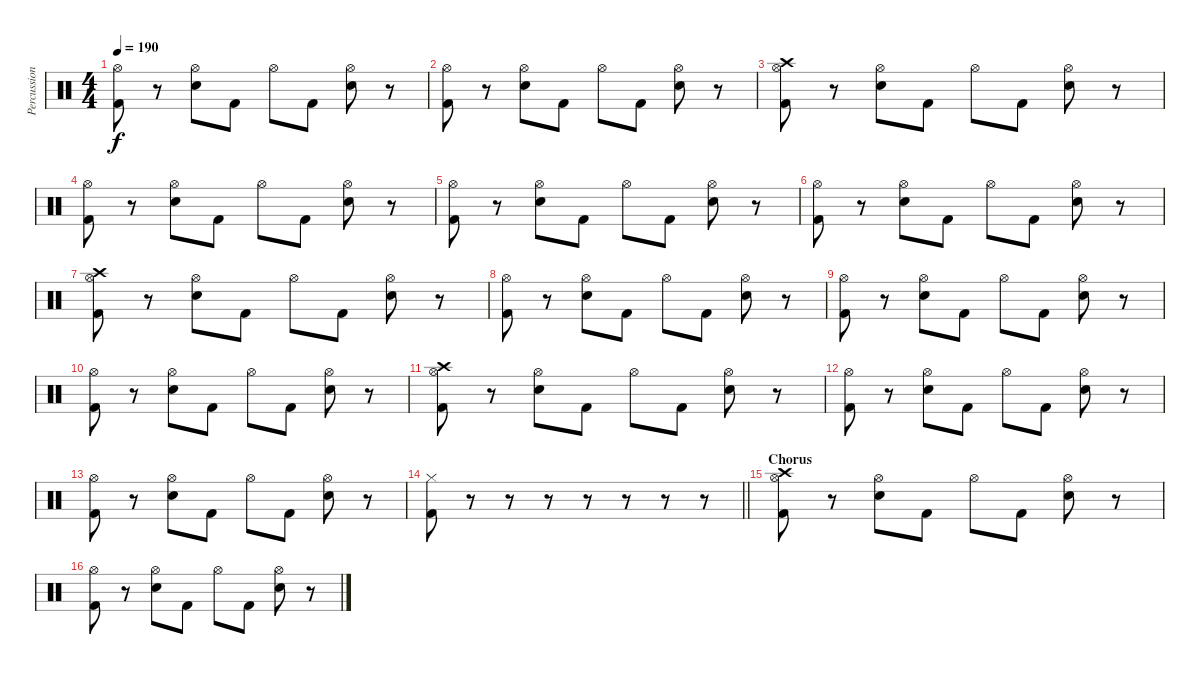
\track ("Percussion" "Percussion") {instrument percussion}
\staff {score}
\articulation defaults
\ts (4 4)
\tempo 190
\clef neutral
\ks c
("Hi-Hat (open)" "Kick (hit) 2").8{dy f} r.8 ("Hi-Hat (open)" "Snare (hit) 2").8 "Kick (hit) 2".8 "Hi-Hat (open)".8 "Kick (hit) 2".8 ("Hi-Hat (open)" "Snare (hit) 2").8 r.8 |
("Hi-Hat (open)" "Kick (hit) 2").8 r.8 ("Hi-Hat (open)" "Snare (hit) 2").8 "Kick (hit) 2".8 "Hi-Hat (open)".8 "Kick (hit) 2".8 ("Hi-Hat (open)" "Snare (hit) 2").8 r.8 |
("Hi-Hat (open)" "Crash high (hit)" "Kick (hit) 2").8 r.8 ("Hi-Hat (open)" "Snare (hit) 2").8 "Kick (hit) 2".8 "Hi-Hat (open)".8 "Kick (hit) 2".8 ("Hi-Hat (open)" "Snare (hit) 2").8 r.8 |
("Hi-Hat (open)" "Kick (hit) 2").8 r.8 ("Hi-Hat (open)" "Snare (hit) 2").8 "Kick (hit) 2".8 "Hi-Hat (open)".8 "Kick (hit) 2".8 ("Hi-Hat (open)" "Snare (hit) 2").8 r.8 |
("Hi-Hat (open)" "Kick (hit) 2").8 r.8 ("Hi-Hat (open)" "Snare (hit) 2").8 "Kick (hit) 2".8 "Hi-Hat (open)".8 "Kick (hit) 2".8 ("Hi-Hat (open)" "Snare (hit) 2").8 r.8 |
("Hi-Hat (open)" "Kick (hit) 2").8 r.8 ("Hi-Hat (open)" "Snare (hit) 2").8 "Kick (hit) 2".8 "Hi-Hat (open)".8 "Kick (hit) 2".8 ("Hi-Hat (open)" "Snare (hit) 2").8 r.8 |
("Hi-Hat (open)" "Crash high (hit)" "Kick (hit) 2").8 r.8 ("Hi-Hat (open)" "Snare (hit) 2").8 "Kick (hit) 2".8 "Hi-Hat (open)".8 "Kick (hit) 2".8 ("Hi-Hat (open)" "Snare (hit) 2").8 r.8 |
("Hi-Hat (open)" "Kick (hit) 2").8 r.8 ("Hi-Hat (open)" "Snare (hit) 2").8 "Kick (hit) 2".8 "Hi-Hat (open)".8 "Kick (hit) 2".8 ("Hi-Hat (open)" "Snare (hit) 2").8 r.8 |
("Hi-Hat (open)" "Kick (hit) 2").8 r.8 ("Hi-Hat (open)" "Snare (hit) 2").8 "Kick (hit) 2".8 "Hi-Hat (open)".8 "Kick (hit) 2".8 ("Hi-Hat (open)" "Snare (hit) 2").8 r.8 |
("Hi-Hat (open)" "Kick (hit) 2").8 r.8 ("Hi-Hat (open)" "Snare (hit) 2").8 "Kick (hit) 2".8 "Hi-Hat (open)".8 "Kick (hit) 2".8 ("Hi-Hat (open)" "Snare (hit) 2").8 r.8 |
("Hi-Hat (open)" "Crash high (hit)" "Kick (hit) 2").8 r.8 ("Hi-Hat (open)" "Snare (hit) 2").8 "Kick (hit) 2".8 "Hi-Hat (open)".8 "Kick (hit) 2".8 ("Hi-Hat (open)" "Snare (hit) 2").8 r.8 |
("Hi-Hat (open)" "Kick (hit) 2").8 r.8 ("Hi-Hat (open)" "Snare (hit) 2").8 "Kick (hit) 2".8 "Hi-Hat (open)".8 "Kick (hit) 2".8 ("Hi-Hat (open)" "Snare (hit) 2").8 r.8 |
("Hi-Hat (open)" "Kick (hit) 2").8 r.8 ("Hi-Hat (open)" "Snare (hit) 2").8 "Kick (hit) 2".8 "Hi-Hat (open)".8 "Kick (hit) 2".8 ("Hi-Hat (open)" "Snare (hit) 2").8 r.8 |
\barLineRight lightlight
("Hi-Hat (closed)" "Kick (hit) 2").8 r.8 r.8 r.8 r.8 r.8 r.8 r.8 |
\section ("" "Chorus")
("Hi-Hat (open)" "Crash high (hit)" "Kick (hit) 2").8 r.8 ("Hi-Hat (open)" "Snare (hit) 2").8 "Kick (hit) 2".8 "Hi-Hat (open)".8 "Kick (hit) 2".8 ("Hi-Hat (open)" "Snare (hit) 2").8 r.8 |
("Hi-Hat (open)" "Kick (hit) 2").8 r.8 ("Hi-Hat (open)" "Snare (hit) 2").8 "Kick (hit) 2".8 "Hi-Hat (open)".8 "Kick (hit) 2".8 ("Hi-Hat (open)" "Snare (hit) 2").8 r.8
